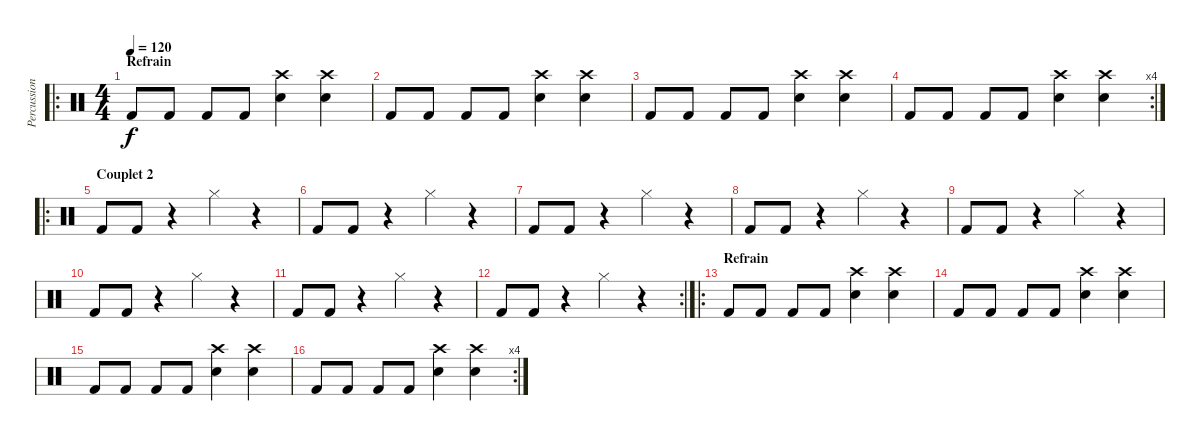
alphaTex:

\track ("Percussions" "Percussion") {instrument percussion}
\staff {score}
\articulation defaults
\ro
\ts (4 4)
\section ("" "Refrain")
\tempo 120
\clef neutral
\ks c "Kick (hit) 2".8{dy f} "Kick (hit) 2".8 "Kick (hit) 2".8 "Kick (hit) 2".8
("Crash high (hit)" "Snare (hit) 2").4 ("Crash high (hit)" "Snare (hit) 2").4 |
"Kick (hit) 2".8 "Kick (hit) 2".8 "Kick (hit) 2".8 "Kick (hit) 2".8 ("Crash high (hit)" "Snare (hit) 2").4 ("Crash high (hit)" "Snare (hit) 2").4 |
"Kick (hit) 2".8 "Kick (hit) 2".8 "Kick (hit) 2".8 "Kick (hit) 2".8 ("Crash high (hit)" "Snare (hit) 2").4 ("Crash high (hit)" "Snare (hit) 2").4 |
\rc 4 "Kick (hit) 2".8 "Kick (hit) 2".8 "Kick (hit) 2".8 "Kick (hit) 2".8
("Crash high (hit)" "Snare (hit) 2").4 ("Crash high (hit)" "Snare (hit) 2").4 |
\ro
\section ("" "Couplet 2")
"Kick (hit) 2".8 "Kick (hit) 2".8 r.4 "Hi-Hat (closed)".4 r.4 |
"Kick (hit) 2".8 "Kick (hit) 2".8 r.4 "Hi-Hat (closed)".4 r.4 |
"Kick (hit) 2".8 "Kick (hit) 2".8 r.4 "Hi-Hat (closed)".4 r.4 |
"Kick (hit) 2".8 "Kick (hit) 2".8 r.4 "Hi-Hat (closed)".4 r.4 |
"Kick (hit) 2".8 "Kick (hit) 2".8 r.4 "Hi-Hat (closed)".4 r.4 |
"Kick (hit) 2".8 "Kick (hit) 2".8 r.4 "Hi-Hat (closed)".4 r.4 |
"Kick (hit) 2".8 "Kick (hit) 2".8 r.4 "Hi-Hat (closed)".4 r.4 |
\rc 2 "Kick (hit) 2".8 "Kick (hit) 2".8
r.4 "Hi-Hat (closed)".4 r.4 |
\ro
\section ("" "Refrain")
"Kick (hit) 2".8 "Kick (hit) 2".8 "Kick (hit) 2".8 "Kick (hit) 2".8 ("Crash high (hit)" "Snare (hit) 2").4 ("Crash high (hit)" "Snare (hit) 2").4 |
"Kick (hit) 2".8 "Kick (hit) 2".8 "Kick (hit) 2".8 "Kick (hit) 2".8 ("Crash high (hit)" "Snare (hit) 2").4 ("Crash high (hit)" "Snare (hit) 2").4 |
"Kick (hit) 2".8 "Kick (hit) 2".8 "Kick (hit) 2".8 "Kick (hit) 2".8 ("Crash high (hit)" "Snare (hit) 2").4 ("Crash high (hit)" "Snare (hit) 2").4 |
\rc 4 "Kick (hit) 2".8 "Kick (hit) 2".8 "Kick (hit) 2".8 "Kick (hit) 2".8
("Crash high (hit)" "Snare (hit) 2").4 ("Crash high (hit)" "Snare (hit) 2").4
